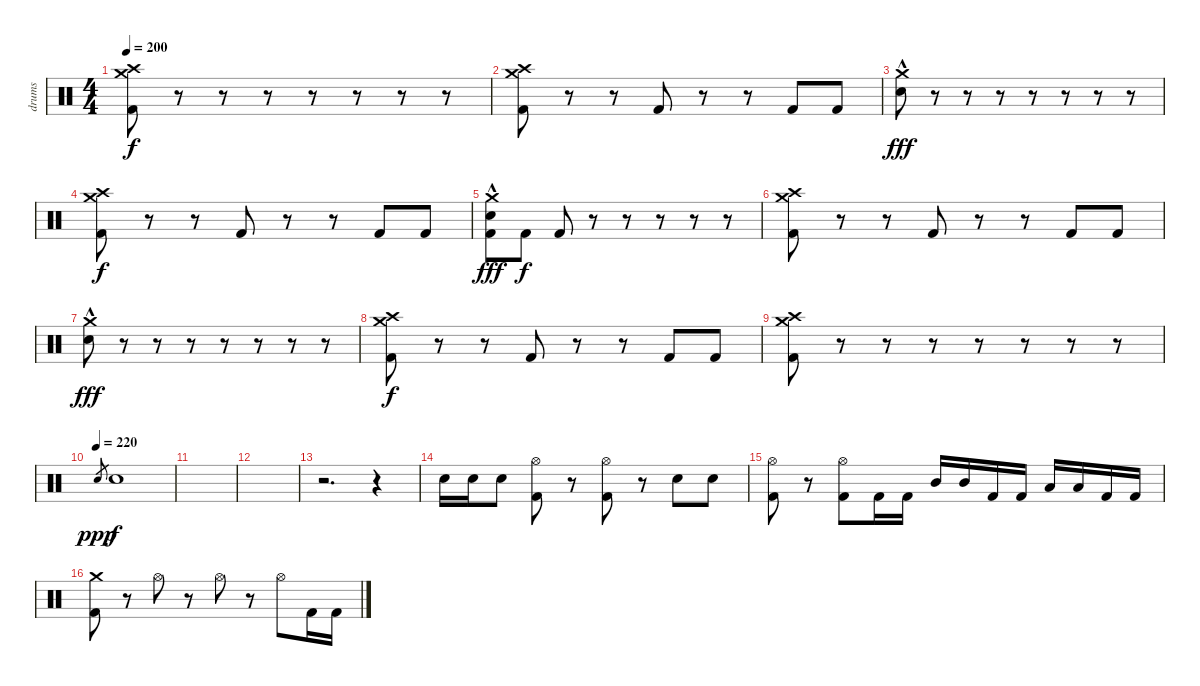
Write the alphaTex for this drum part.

\track ("drums" "drums") {instrument percussion}
\staff {score}
\articulation defaults
\ts (4 4)
\tempo 200
\clef neutral
\ks c
("Crash high (hit)" "Crash medium (hit)" "Kick (hit) 2").8{dy f} r.8 r.8 r.8 r.8 r.8 r.8 r.8 |
("Crash high (hit)" "Crash medium (hit)" "Kick (hit) 2").8 r.8 r.8 "Kick (hit) 2".8 r.8 r.8 "Kick (hit) 2".8 "Kick (hit) 2".8 |
("Crash medium (hit)" "Electric Snare (hit)"{hac}).8{dy fff} r.8 r.8 r.8 r.8 r.8 r.8 r.8 |
("Crash high (hit)" "Crash medium (hit)" "Kick (hit) 2").8{dy f} r.8 r.8 "Kick (hit) 2".8 r.8 r.8 "Kick (hit) 2".8 "Kick (hit) 2".8 |
("Crash medium (hit)" "Electric Snare (hit)"{hac} "Kick (hit) 2").8{dy fff} "Kick (hit) 2".8{dy f} "Kick (hit) 2".8 r.8 r.8 r.8 r.8 r.8 |
("Crash high (hit)" "Crash medium (hit)" "Kick (hit) 2").8 r.8 r.8 "Kick (hit) 2".8 r.8 r.8 "Kick (hit) 2".8 "Kick (hit) 2".8 |
("Crash medium (hit)" "Electric Snare (hit)"{hac}).8{dy fff} r.8 r.8 r.8 r.8 r.8 r.8 r.8 |
("Crash high (hit)" "Crash medium (hit)" "Kick (hit) 2").8{dy f} r.8 r.8 "Kick (hit) 2".8 r.8 r.8 "Kick (hit) 2".8 "Kick (hit) 2".8 |
("Crash high (hit)" "Crash medium (hit)" "Kick (hit) 2").8 r.8 r.8 r.8 r.8 r.8 r.8 r.8 |
\tempo (220)
"Electric Snare (hit)".8{gr dy ppp} "Electric Snare (hit)".1{dy f} |
|
|
r.2{d} r.4 |
"Electric Snare (hit)".16 "Electric Snare (hit)".16 "Electric Snare (hit)".8 ("Hi-Hat (open)" "Kick (hit) 2").8 r.8 ("Hi-Hat (open)" "Kick (hit) 2").8 r.8 "Electric Snare (hit)".8 "Electric Snare (hit)".8 |
("Hi-Hat (open)" "Kick (hit) 2").8 r.8 ("Hi-Hat (open)" "Kick (hit) 2").8 "Kick (hit) 2".16 "Kick (hit) 2".16 "Mid Tom (hit)".16 "Mid Tom (hit)".16 "Kick (hit) 2".16 "Kick (hit) 2".16 "Low Tom (hit)".16 "Low Tom (hit)".16 "Kick (hit) 2".16 "Kick (hit) 2".16 |
("Crash medium (hit)" "Kick (hit) 2").8 r.8 "Hi-Hat (open)".8 r.8 "Hi-Hat (open)".8 r.8 "Hi-Hat (open)".8 "Kick (hit) 2".16 "Kick (hit) 2".16
